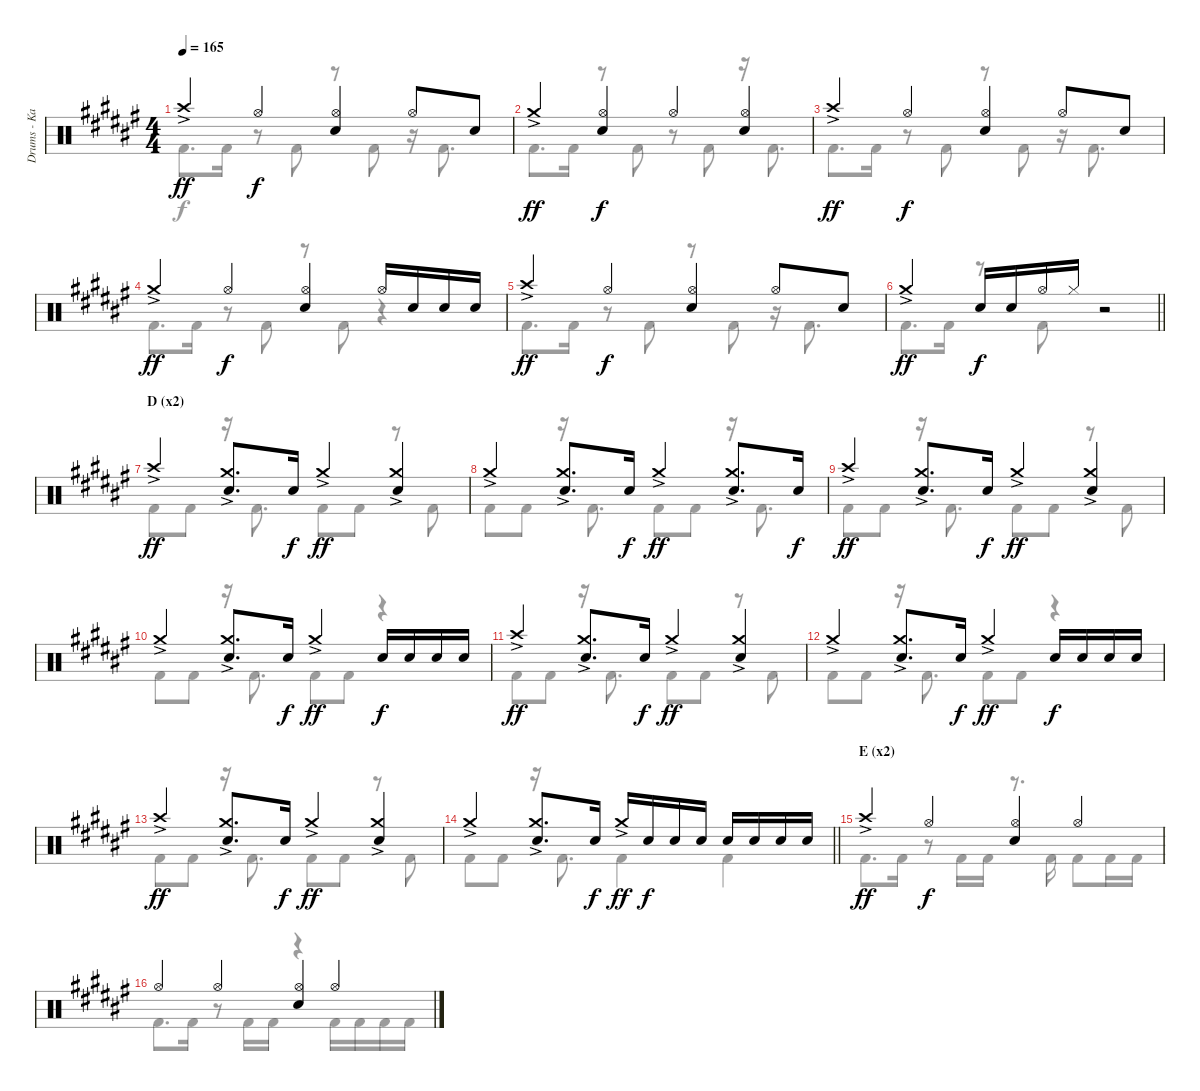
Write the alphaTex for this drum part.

\track ("Drums - Kai" "Drums - Ka") {instrument percussion}
\staff {score}
\articulation defaults
\voice
\ts (4 4)
\tempo 165
\clef neutral
\ks f# "Crash high (hit)"{ac}.4{dy ff} "Hi-Hat (open)".4{dy f}
("Hi-Hat (open)" "Electric Snare (hit)").4 "Hi-Hat (open)".8 "Electric Snare (hit)".8 |
"Crash medium (hit)"{ac}.4{dy ff} ("Hi-Hat (open)" "Electric Snare (hit)").4{dy f} "Hi-Hat (open)".4 ("Hi-Hat (open)" "Electric Snare (hit)").4 |
"Crash high (hit)"{ac}.4{dy ff} "Hi-Hat (open)".4{dy f} ("Hi-Hat (open)" "Electric Snare (hit)").4 "Hi-Hat (open)".8 "Electric Snare (hit)".8 |
"Crash medium (hit)"{ac}.4{dy ff} "Hi-Hat (open)".4{dy f} ("Hi-Hat (open)" "Electric Snare (hit)").4 "Hi-Hat (open)".16 "Electric Snare (hit)".16 "Electric Snare (hit)".16 "Electric Snare (hit)".16 |
"Crash high (hit)"{ac}.4{dy ff} "Hi-Hat (open)".4{dy f} ("Hi-Hat (open)" "Electric Snare (hit)").4 "Hi-Hat (open)".8 "Electric Snare (hit)".8 |
\barLineRight lightlight "Crash medium (hit)"{ac}.4{dy ff} "Electric Snare (hit)".16{dy f} "Electric Snare (hit)".16 "Hi-Hat (open)".16 "Hi-Hat (closed)".16
r.2 |
\section ("" "D (x2)")
"Crash high (hit)"{ac}.4{dy ff} ("Crash medium (hit)"{ac} "Electric Snare (hit)").8{d} "Electric Snare (hit)".16{dy f} "Crash medium (hit)"{ac}.4{dy ff} ("Crash medium (hit)"{ac} "Electric Snare (hit)").4 |
"Crash medium (hit)"{ac}.4 ("Crash medium (hit)"{ac} "Electric Snare (hit)").8{d} "Electric Snare (hit)".16{dy f} "Crash medium (hit)"{ac}.4{dy ff} ("Crash medium (hit)"{ac} "Electric Snare (hit)").8{d} "Electric Snare (hit)".16{dy f} |
"Crash high (hit)"{ac}.4{dy ff} ("Crash medium (hit)"{ac} "Electric Snare (hit)").8{d} "Electric Snare (hit)".16{dy f} "Crash medium (hit)"{ac}.4{dy ff} ("Crash medium (hit)"{ac} "Electric Snare (hit)").4 |
"Crash medium (hit)"{ac}.4 ("Crash medium (hit)"{ac} "Electric Snare (hit)").8{d} "Electric Snare (hit)".16{dy f} "Crash medium (hit)"{ac}.4{dy ff} "Electric Snare (hit)".16{dy f} "Electric Snare (hit)".16 "Electric Snare (hit)".16 "Electric Snare (hit)".16 |
"Crash high (hit)"{ac}.4{dy ff} ("Crash medium (hit)"{ac} "Electric Snare (hit)").8{d} "Electric Snare (hit)".16{dy f} "Crash medium (hit)"{ac}.4{dy ff} ("Crash medium (hit)"{ac} "Electric Snare (hit)").4 |
"Crash medium (hit)"{ac}.4 ("Crash medium (hit)"{ac} "Electric Snare (hit)").8{d} "Electric Snare (hit)".16{dy f} "Crash medium (hit)"{ac}.4{dy ff} "Electric Snare (hit)".16{dy f} "Electric Snare (hit)".16 "Electric Snare (hit)".16 "Electric Snare (hit)".16 |
"Crash high (hit)"{ac}.4{dy ff} ("Crash medium (hit)"{ac} "Electric Snare (hit)").8{d} "Electric Snare (hit)".16{dy f} "Crash medium (hit)"{ac}.4{dy ff} ("Crash medium (hit)"{ac} "Electric Snare (hit)").4 |
\barLineRight lightlight "Crash medium (hit)"{ac}.4
("Crash medium (hit)"{ac} "Electric Snare (hit)").8{d} "Electric Snare (hit)".16{dy f} "Crash medium (hit)"{ac}.16{dy ff} "Electric Snare (hit)".16{dy f} "Electric Snare (hit)".16 "Electric Snare (hit)".16 "Electric Snare (hit)".16 "Electric Snare (hit)".16 "Electric Snare (hit)".16 "Electric Snare (hit)".16 |
\section ("" "E (x2)")
"Crash high (hit)"{ac}.4{dy ff} "Hi-Hat (open)".4{dy f} ("Hi-Hat (open)" "Electric Snare (hit)").4 "Hi-Hat (open)".4 |
"Hi-Hat (open)".4 "Hi-Hat (open)".4 ("Hi-Hat (open)" "Electric Snare (hit)").4 "Hi-Hat (open)".4
\voice
\clef neutral
\ottava regular
\simile none
\ks f# "Kick (hit) 2".8{d dy f} "Kick (hit) 2".16
r.8 "Kick (hit) 2".8 r.8 "Kick (hit) 2".8 r.16 "Kick (hit) 2".8{d} |
"Kick (hit) 2".8{d} "Kick (hit) 2".16 r.8 "Kick (hit) 2".8 r.8 "Kick (hit) 2".8 r.16 "Kick (hit) 2".8{d} |
"Kick (hit) 2".8{d} "Kick (hit) 2".16 r.8 "Kick (hit) 2".8 r.8 "Kick (hit) 2".8 r.16 "Kick (hit) 2".8{d} |
"Kick (hit) 2".8{d} "Kick (hit) 2".16 r.8 "Kick (hit) 2".8 r.8 "Kick (hit) 2".8 r.4 |
"Kick (hit) 2".8{d} "Kick (hit) 2".16 r.8 "Kick (hit) 2".8 r.8 "Kick (hit) 2".8 r.16 "Kick (hit) 2".8{d} |
\barLineRight lightlight "Kick (hit) 2".8{d} "Kick (hit) 2".16
r.8 "Kick (hit) 2".8 r.2 |
"Kick (hit) 2".8 "Kick (hit) 2".8 r.16 "Kick (hit) 2".8{d} "Kick (hit) 2".8 "Kick (hit) 2".8 r.8 "Kick (hit) 2".8 |
"Kick (hit) 2".8 "Kick (hit) 2".8 r.16 "Kick (hit) 2".8{d} "Kick (hit) 2".8 "Kick (hit) 2".8 r.16 "Kick (hit) 2".8{d} |
"Kick (hit) 2".8 "Kick (hit) 2".8 r.16 "Kick (hit) 2".8{d} "Kick (hit) 2".8 "Kick (hit) 2".8 r.8 "Kick (hit) 2".8 |
"Kick (hit) 2".8 "Kick (hit) 2".8 r.16 "Kick (hit) 2".8{d} "Kick (hit) 2".8 "Kick (hit) 2".8 r.4 |
"Kick (hit) 2".8 "Kick (hit) 2".8 r.16 "Kick (hit) 2".8{d} "Kick (hit) 2".8 "Kick (hit) 2".8 r.8 "Kick (hit) 2".8 |
"Kick (hit) 2".8 "Kick (hit) 2".8 r.16 "Kick (hit) 2".8{d} "Kick (hit) 2".8 "Kick (hit) 2".8 r.4 |
"Kick (hit) 2".8 "Kick (hit) 2".8 r.16 "Kick (hit) 2".8{d} "Kick (hit) 2".8 "Kick (hit) 2".8 r.8 "Kick (hit) 2".8 |
\barLineRight lightlight "Kick (hit) 2".8 "Kick (hit) 2".8
r.16 "Kick (hit) 2".8{d} "Kick (hit) 2".4 "Kick (hit) 2".4 |
"Kick (hit) 2".8{d} "Kick (hit) 2".16 r.8 "Kick (hit) 2".16 "Kick (hit) 2".16 r.8{d} "Kick (hit) 2".16 "Kick (hit) 2".8 "Kick (hit) 2".16 "Kick (hit) 2".16 |
"Kick (hit) 2".8{d} "Kick (hit) 2".16 r.8 "Kick (hit) 2".16 "Kick (hit) 2".16 r.4 "Kick (hit) 2".16 "Kick (hit) 2".16 "Kick (hit) 2".16 "Kick (hit) 2".16
